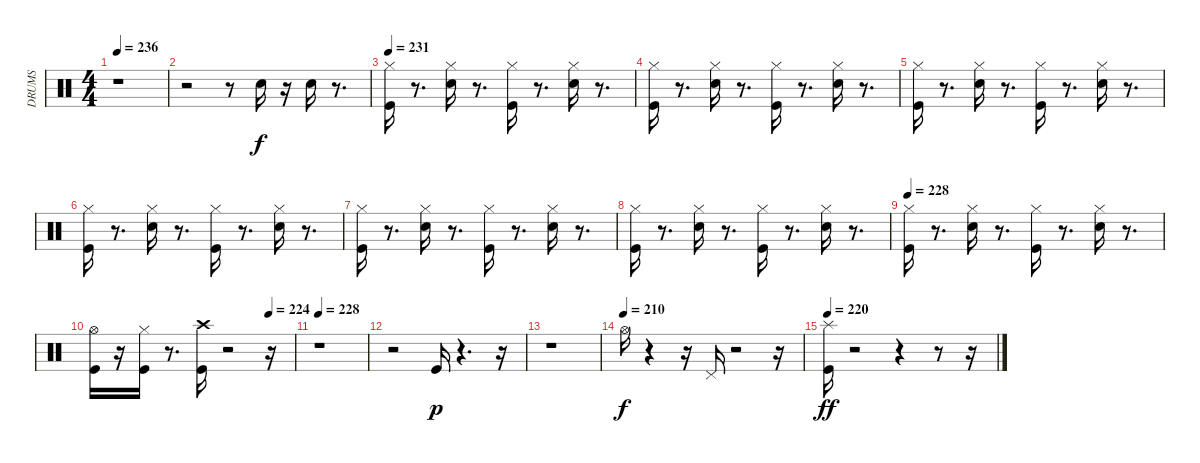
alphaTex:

\track ("DRUMS" "DRUMS") {instrument percussion}
\staff {score}
\articulation defaults
\ts (4 4)
\tempo 236
\clef neutral
\ks c
r.1{dy f} |
r.2 r.8 "Electric Snare (hit)".16 r.16 "Electric Snare (hit)".16 r.8{d} |
\tempo 231
("Kick (hit)" "Hi-Hat (closed)").16 r.8{d} ("Hi-Hat (closed)" "Electric Snare (hit)").16 r.8{d} ("Hi-Hat (closed)" "Kick (hit)").16 r.8{d} ("Electric Snare (hit)" "Hi-Hat (closed)").16 r.8{d} |
("Kick (hit)" "Hi-Hat (closed)").16 r.8{d} ("Hi-Hat (closed)" "Electric Snare (hit)").16 r.8{d} ("Hi-Hat (closed)" "Kick (hit)").16 r.8{d} ("Electric Snare (hit)" "Hi-Hat (closed)").16 r.8{d} |
("Kick (hit)" "Hi-Hat (closed)").16 r.8{d} ("Hi-Hat (closed)" "Electric Snare (hit)").16 r.8{d} ("Hi-Hat (closed)" "Kick (hit)").16 r.8{d} ("Electric Snare (hit)" "Hi-Hat (closed)").16 r.8{d} |
("Kick (hit)" "Hi-Hat (closed)").16 r.8{d} ("Electric Snare (hit)" "Hi-Hat (closed)").16 r.8{d} ("Kick (hit)" "Hi-Hat (closed)").16 r.8{d} ("Electric Snare (hit)" "Hi-Hat (closed)").16 r.8{d} |
("Kick (hit)" "Hi-Hat (closed)").16 r.8{d} ("Hi-Hat (closed)" "Electric Snare (hit)").16 r.8{d} ("Kick (hit)" "Hi-Hat (closed)").16 r.8{d} ("Electric Snare (hit)" "Hi-Hat (closed)").16 r.8{d} |
("Kick (hit)" "Hi-Hat (closed)").16 r.8{d} ("Electric Snare (hit)" "Hi-Hat (closed)").16 r.8{d} ("Kick (hit)" "Hi-Hat (closed)").16 r.8{d} ("Electric Snare (hit)" "Hi-Hat (closed)").16 r.8{d} |
\tempo 228
("Kick (hit)" "Hi-Hat (closed)").16 r.8{d} ("Electric Snare (hit)" "Hi-Hat (closed)").16 r.8{d} ("Kick (hit)" "Hi-Hat (closed)").16 r.8{d} ("Electric Snare (hit)" "Hi-Hat (closed)").16 r.8{d} |
\tempo (224 0.875)
("Hi-Hat (open)" "Kick (hit)").16 r.16 ("Hi-Hat (closed)" "Kick (hit)").16 r.8{d} ("Crash high (hit)" "Kick (hit)").16 r.2 r.16 |
\tempo 228
r.1 |
r.2 "Kick (hit)".16{dy p} r.4{d} r.16 |
r.1 |
\tempo (210)
"Hi-Hat (open)".16{dy f} r.4 r.16 "Pedal Hi-Hat (hit)".16 r.2 r.16 |
\tempo 220
("Kick (hit)" "Splash (hit)").16{dy ff} r.2 r.4 r.8 r.16
